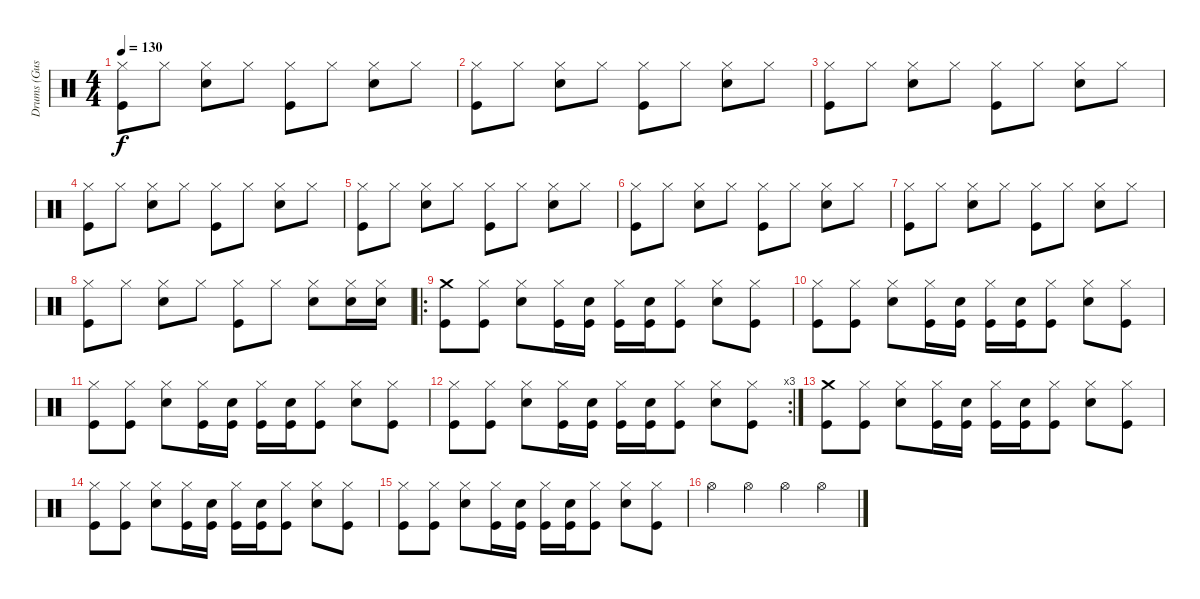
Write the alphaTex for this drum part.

\track ("Drums (Gustav) " "Drums (Gus") {instrument percussion}
\staff {score}
\articulation defaults
\ts (4 4)
\tempo 130
\clef neutral
\ks c
("Kick (hit)" "Hi-Hat (closed)").8{dy f} "Hi-Hat (closed)".8 ("Snare (hit) 2" "Hi-Hat (closed)").8 "Hi-Hat (closed)".8 ("Kick (hit)" "Hi-Hat (closed)").8 "Hi-Hat (closed)".8 ("Snare (hit) 2" "Hi-Hat (closed)").8 "Hi-Hat (closed)".8 |
("Kick (hit)" "Hi-Hat (closed)").8 "Hi-Hat (closed)".8 ("Snare (hit) 2" "Hi-Hat (closed)").8 "Hi-Hat (closed)".8 ("Kick (hit)" "Hi-Hat (closed)").8 "Hi-Hat (closed)".8 ("Snare (hit) 2" "Hi-Hat (closed)").8 "Hi-Hat (closed)".8 |
("Kick (hit)" "Hi-Hat (closed)").8 "Hi-Hat (closed)".8 ("Snare (hit) 2" "Hi-Hat (closed)").8 "Hi-Hat (closed)".8 ("Kick (hit)" "Hi-Hat (closed)").8 "Hi-Hat (closed)".8 ("Snare (hit) 2" "Hi-Hat (closed)").8 "Hi-Hat (closed)".8 |
("Kick (hit)" "Hi-Hat (closed)").8 "Hi-Hat (closed)".8 ("Snare (hit) 2" "Hi-Hat (closed)").8 "Hi-Hat (closed)".8 ("Kick (hit)" "Hi-Hat (closed)").8 "Hi-Hat (closed)".8 ("Snare (hit) 2" "Hi-Hat (closed)").8 "Hi-Hat (closed)".8 |
("Kick (hit)" "Hi-Hat (closed)").8 "Hi-Hat (closed)".8 ("Snare (hit) 2" "Hi-Hat (closed)").8 "Hi-Hat (closed)".8 ("Kick (hit)" "Hi-Hat (closed)").8 "Hi-Hat (closed)".8 ("Snare (hit) 2" "Hi-Hat (closed)").8 "Hi-Hat (closed)".8 |
("Kick (hit)" "Hi-Hat (closed)").8 "Hi-Hat (closed)".8 ("Snare (hit) 2" "Hi-Hat (closed)").8 "Hi-Hat (closed)".8 ("Kick (hit)" "Hi-Hat (closed)").8 "Hi-Hat (closed)".8 ("Snare (hit) 2" "Hi-Hat (closed)").8 "Hi-Hat (closed)".8 |
("Kick (hit)" "Hi-Hat (closed)").8 "Hi-Hat (closed)".8 ("Snare (hit) 2" "Hi-Hat (closed)").8 "Hi-Hat (closed)".8 ("Kick (hit)" "Hi-Hat (closed)").8 "Hi-Hat (closed)".8 ("Snare (hit) 2" "Hi-Hat (closed)").8 "Hi-Hat (closed)".8 |
("Kick (hit)" "Hi-Hat (closed)").8 "Hi-Hat (closed)".8 ("Snare (hit) 2" "Hi-Hat (closed)").8 "Hi-Hat (closed)".8 ("Kick (hit)" "Hi-Hat (closed)").8 "Hi-Hat (closed)".8 ("Snare (hit) 2" "Hi-Hat (closed)").8 ("Snare (hit) 2" "Hi-Hat (closed)").16 ("Snare (hit) 2" "Hi-Hat (closed)").16 |
\ro
("Kick (hit)" "Crash medium (hit)").8 ("Kick (hit)" "Hi-Hat (closed)").8 ("Snare (hit) 2" "Hi-Hat (closed)").8 ("Kick (hit)" "Hi-Hat (closed)").16 ("Snare (hit) 2" "Kick (hit)").16 ("Kick (hit)" "Hi-Hat (closed)").16 ("Snare (hit) 2" "Kick (hit)").16 ("Kick (hit)" "Hi-Hat (closed)").8 ("Snare (hit) 2" "Hi-Hat (closed)").8 ("Kick (hit)" "Hi-Hat (closed)").8 |
("Kick (hit)" "Hi-Hat (closed)").8 ("Kick (hit)" "Hi-Hat (closed)").8 ("Snare (hit) 2" "Hi-Hat (closed)").8 ("Kick (hit)" "Hi-Hat (closed)").16 ("Snare (hit) 2" "Kick (hit)").16 ("Kick (hit)" "Hi-Hat (closed)").16 ("Snare (hit) 2" "Kick (hit)").16 ("Kick (hit)" "Hi-Hat (closed)").8 ("Snare (hit) 2" "Hi-Hat (closed)").8 ("Kick (hit)" "Hi-Hat (closed)").8 |
("Kick (hit)" "Hi-Hat (closed)").8 ("Kick (hit)" "Hi-Hat (closed)").8 ("Snare (hit) 2" "Hi-Hat (closed)").8 ("Kick (hit)" "Hi-Hat (closed)").16 ("Snare (hit) 2" "Kick (hit)").16 ("Kick (hit)" "Hi-Hat (closed)").16 ("Snare (hit) 2" "Kick (hit)").16 ("Kick (hit)" "Hi-Hat (closed)").8 ("Snare (hit) 2" "Hi-Hat (closed)").8 ("Kick (hit)" "Hi-Hat (closed)").8 |
\rc 3
("Kick (hit)" "Hi-Hat (closed)").8 ("Kick (hit)" "Hi-Hat (closed)").8 ("Snare (hit) 2" "Hi-Hat (closed)").8 ("Kick (hit)" "Hi-Hat (closed)").16 ("Snare (hit) 2" "Kick (hit)").16 ("Kick (hit)" "Hi-Hat (closed)").16 ("Snare (hit) 2" "Kick (hit)").16 ("Kick (hit)" "Hi-Hat (closed)").8 ("Snare (hit) 2" "Hi-Hat (closed)").8 ("Kick (hit)" "Hi-Hat (closed)").8 |
("Kick (hit)" "Crash medium (hit)").8 ("Kick (hit)" "Hi-Hat (closed)").8 ("Snare (hit) 2" "Hi-Hat (closed)").8 ("Kick (hit)" "Hi-Hat (closed)").16 ("Snare (hit) 2" "Kick (hit)").16 ("Kick (hit)" "Hi-Hat (closed)").16 ("Snare (hit) 2" "Kick (hit)").16 ("Kick (hit)" "Hi-Hat (closed)").8 ("Snare (hit) 2" "Hi-Hat (closed)").8 ("Kick (hit)" "Hi-Hat (closed)").8 |
("Kick (hit)" "Hi-Hat (closed)").8 ("Kick (hit)" "Hi-Hat (closed)").8 ("Snare (hit) 2" "Hi-Hat (closed)").8 ("Kick (hit)" "Hi-Hat (closed)").16 ("Snare (hit) 2" "Kick (hit)").16 ("Kick (hit)" "Hi-Hat (closed)").16 ("Snare (hit) 2" "Kick (hit)").16 ("Kick (hit)" "Hi-Hat (closed)").8 ("Snare (hit) 2" "Hi-Hat (closed)").8 ("Kick (hit)" "Hi-Hat (closed)").8 |
("Kick (hit)" "Hi-Hat (closed)").8 ("Kick (hit)" "Hi-Hat (closed)").8 ("Snare (hit) 2" "Hi-Hat (closed)").8 ("Kick (hit)" "Hi-Hat (closed)").16 ("Snare (hit) 2" "Kick (hit)").16 ("Kick (hit)" "Hi-Hat (closed)").16 ("Snare (hit) 2" "Kick (hit)").16 ("Kick (hit)" "Hi-Hat (closed)").8 ("Snare (hit) 2" "Hi-Hat (closed)").8 ("Kick (hit)" "Hi-Hat (closed)").8 |
"Hi-Hat (open)".4 "Hi-Hat (open)".4 "Hi-Hat (open)".4 "Hi-Hat (open)".4
